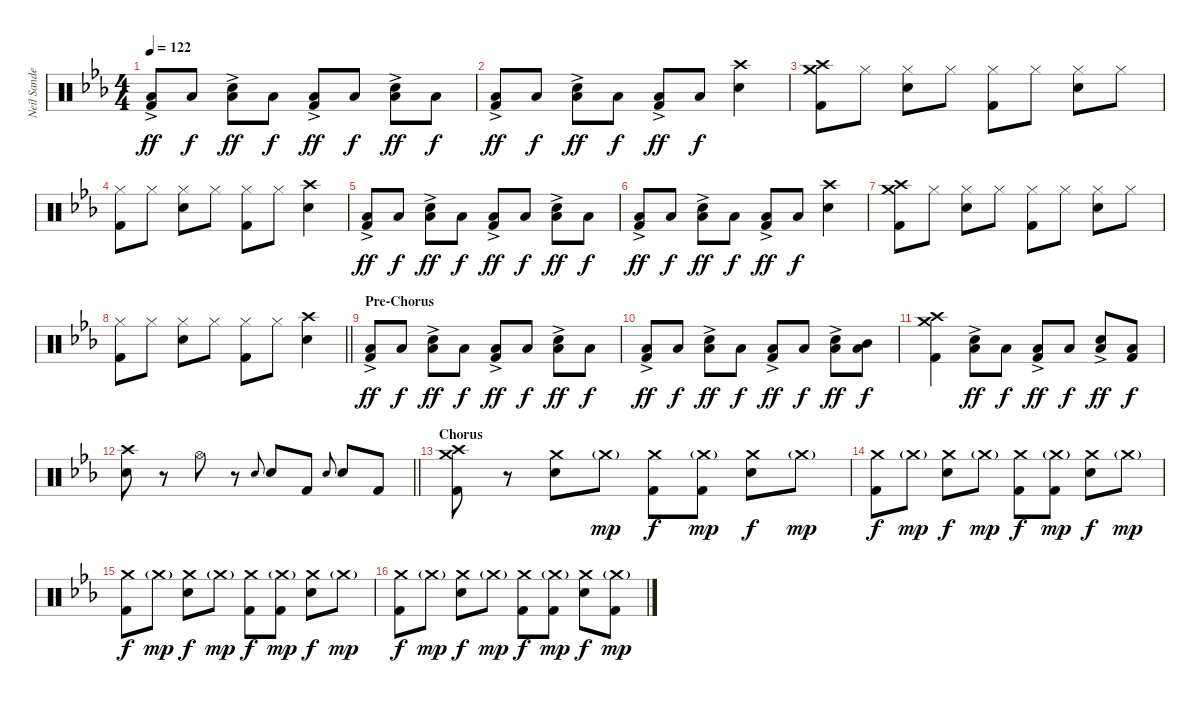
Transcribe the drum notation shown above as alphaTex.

\track ("Neil Sanderson" "Neil Sande") {instrument percussion}
\staff {score}
\articulation defaults
\ts (4 4)
\tempo 122
\clef neutral
\ks cminor
("Low Floor Tom (hit)"{ac} "Kick (hit) 2").8{dy ff} "Low Floor Tom (hit)".8{dy f} ("Electric Snare (hit)" "Low Floor Tom (hit)"{ac}).8{dy ff} "Low Floor Tom (hit)".8{dy f} ("Low Floor Tom (hit)"{ac} "Kick (hit) 2").8{dy ff} "Low Floor Tom (hit)".8{dy f} ("Electric Snare (hit)" "Low Floor Tom (hit)"{ac}).8{dy ff} "Low Floor Tom (hit)".8{dy f} |
("Low Floor Tom (hit)"{ac} "Kick (hit) 2").8{dy ff} "Low Floor Tom (hit)".8{dy f} ("Electric Snare (hit)" "Low Floor Tom (hit)"{ac}).8{dy ff} "Low Floor Tom (hit)".8{dy f} ("Low Floor Tom (hit)"{ac} "Kick (hit) 2").8{dy ff} "Low Floor Tom (hit)".8{dy f} ("Crash high (hit)" "Electric Snare (hit)").4 |
("Crash medium (hit)" "Crash high (hit)" "Kick (hit) 2").8 "Hi-Hat (closed)".8 ("Hi-Hat (closed)" "Electric Snare (hit)").8 "Hi-Hat (closed)".8 ("Hi-Hat (closed)" "Kick (hit) 2").8 "Hi-Hat (closed)".8 ("Hi-Hat (closed)" "Electric Snare (hit)").8 "Hi-Hat (closed)".8 |
("Hi-Hat (closed)" "Kick (hit) 2").8 "Hi-Hat (closed)".8 ("Hi-Hat (closed)" "Electric Snare (hit)").8 "Hi-Hat (closed)".8 ("Hi-Hat (closed)" "Kick (hit) 2").8 "Hi-Hat (closed)".8 ("Crash high (hit)" "Electric Snare (hit)").4 |
("Low Floor Tom (hit)"{ac} "Kick (hit) 2").8{dy ff} "Low Floor Tom (hit)".8{dy f} ("Electric Snare (hit)" "Low Floor Tom (hit)"{ac}).8{dy ff} "Low Floor Tom (hit)".8{dy f} ("Low Floor Tom (hit)"{ac} "Kick (hit) 2").8{dy ff} "Low Floor Tom (hit)".8{dy f} ("Electric Snare (hit)" "Low Floor Tom (hit)"{ac}).8{dy ff} "Low Floor Tom (hit)".8{dy f} |
("Low Floor Tom (hit)"{ac} "Kick (hit) 2").8{dy ff} "Low Floor Tom (hit)".8{dy f} ("Electric Snare (hit)" "Low Floor Tom (hit)"{ac}).8{dy ff} "Low Floor Tom (hit)".8{dy f} ("Low Floor Tom (hit)"{ac} "Kick (hit) 2").8{dy ff} "Low Floor Tom (hit)".8{dy f} ("Crash high (hit)" "Electric Snare (hit)").4 |
("Crash medium (hit)" "Crash high (hit)" "Kick (hit) 2").8 "Hi-Hat (closed)".8 ("Hi-Hat (closed)" "Electric Snare (hit)").8 "Hi-Hat (closed)".8 ("Hi-Hat (closed)" "Kick (hit) 2").8 "Hi-Hat (closed)".8 ("Hi-Hat (closed)" "Electric Snare (hit)").8 "Hi-Hat (closed)".8 |
\barLineRight lightlight
("Hi-Hat (closed)" "Kick (hit) 2").8 "Hi-Hat (closed)".8 ("Hi-Hat (closed)" "Electric Snare (hit)").8 "Hi-Hat (closed)".8 ("Hi-Hat (closed)" "Kick (hit) 2").8 "Hi-Hat (closed)".8 ("Crash high (hit)" "Electric Snare (hit)").4 |
\section ("" "Pre-Chorus")
("Low Floor Tom (hit)"{ac} "Kick (hit) 2").8{dy ff} "Low Floor Tom (hit)".8{dy f} ("Electric Snare (hit)" "Low Floor Tom (hit)"{ac}).8{dy ff} "Low Floor Tom (hit)".8{dy f} ("Low Floor Tom (hit)"{ac} "Kick (hit) 2").8{dy ff} "Low Floor Tom (hit)".8{dy f} ("Electric Snare (hit)" "Low Floor Tom (hit)"{ac}).8{dy ff} "Low Floor Tom (hit)".8{dy f} |
("Low Floor Tom (hit)"{ac} "Kick (hit) 2").8{dy ff} "Low Floor Tom (hit)".8{dy f} ("Electric Snare (hit)" "Low Floor Tom (hit)"{ac}).8{dy ff} "Low Floor Tom (hit)".8{dy f} ("Low Floor Tom (hit)"{ac} "Kick (hit) 2").8{dy ff} "Low Floor Tom (hit)".8{dy f} ("Electric Snare (hit)" "Low Floor Tom (hit)"{ac}).8{dy ff} ("Mid Tom (hit)" "Low Floor Tom (hit)").8{dy f} |
("Crash medium (hit)" "Crash high (hit)" "Kick (hit) 2").4 ("Electric Snare (hit)" "Low Floor Tom (hit)"{ac}).8{dy ff} "Low Floor Tom (hit)".8{dy f} ("Low Floor Tom (hit)"{ac} "Kick (hit) 2").8{dy ff} "Low Floor Tom (hit)".8{dy f} ("Electric Snare (hit)" "Low Floor Tom (hit)"{ac}).8{dy ff} ("Low Floor Tom (hit)" "Kick (hit) 2").8{dy f} |
\barLineRight lightlight
("Crash high (hit)" "Electric Snare (hit)").8 r.8 "Hi-Hat (open)".8 r.8 "Electric Snare (hit)".8{gr onbeat} "Electric Snare (hit)".8 "Kick (hit) 2".8 "Electric Snare (hit)".8{gr onbeat} "Electric Snare (hit)".8 "Kick (hit) 2".8 |
\section ("" "Chorus")
("Crash medium (hit)" "Crash high (hit)" "Kick (hit) 2").8 r.8 ("Crash medium (hit)" "Electric Snare (hit)").8 "Crash medium (hit)"{g}.8{dy mp} ("Crash medium (hit)" "Kick (hit) 2").8{dy f} ("Crash medium (hit)"{g} "Kick (hit) 2").8{dy mp} ("Crash medium (hit)" "Electric Snare (hit)").8{dy f} "Crash medium (hit)"{g}.8{dy mp} |
("Crash medium (hit)" "Kick (hit) 2").8{dy f} "Crash medium (hit)"{g}.8{dy mp} ("Crash medium (hit)" "Electric Snare (hit)").8{dy f} "Crash medium (hit)"{g}.8{dy mp} ("Crash medium (hit)" "Kick (hit) 2").8{dy f} ("Crash medium (hit)"{g} "Kick (hit) 2").8{dy mp} ("Crash medium (hit)" "Electric Snare (hit)").8{dy f} "Crash medium (hit)"{g}.8{dy mp} |
("Crash medium (hit)" "Kick (hit) 2").8{dy f} "Crash medium (hit)"{g}.8{dy mp} ("Crash medium (hit)" "Electric Snare (hit)").8{dy f} "Crash medium (hit)"{g}.8{dy mp} ("Crash medium (hit)" "Kick (hit) 2").8{dy f} ("Crash medium (hit)"{g} "Kick (hit) 2").8{dy mp} ("Crash medium (hit)" "Electric Snare (hit)").8{dy f} "Crash medium (hit)"{g}.8{dy mp} |
("Crash medium (hit)" "Kick (hit) 2").8{dy f} "Crash medium (hit)"{g}.8{dy mp} ("Crash medium (hit)" "Electric Snare (hit)").8{dy f} "Crash medium (hit)"{g}.8{dy mp} ("Crash medium (hit)" "Kick (hit) 2").8{dy f} ("Crash medium (hit)"{g} "Kick (hit) 2").8{dy mp} ("Crash medium (hit)" "Electric Snare (hit)").8{dy f} ("Crash medium (hit)"{g} "Kick (hit) 2").8{dy mp}
